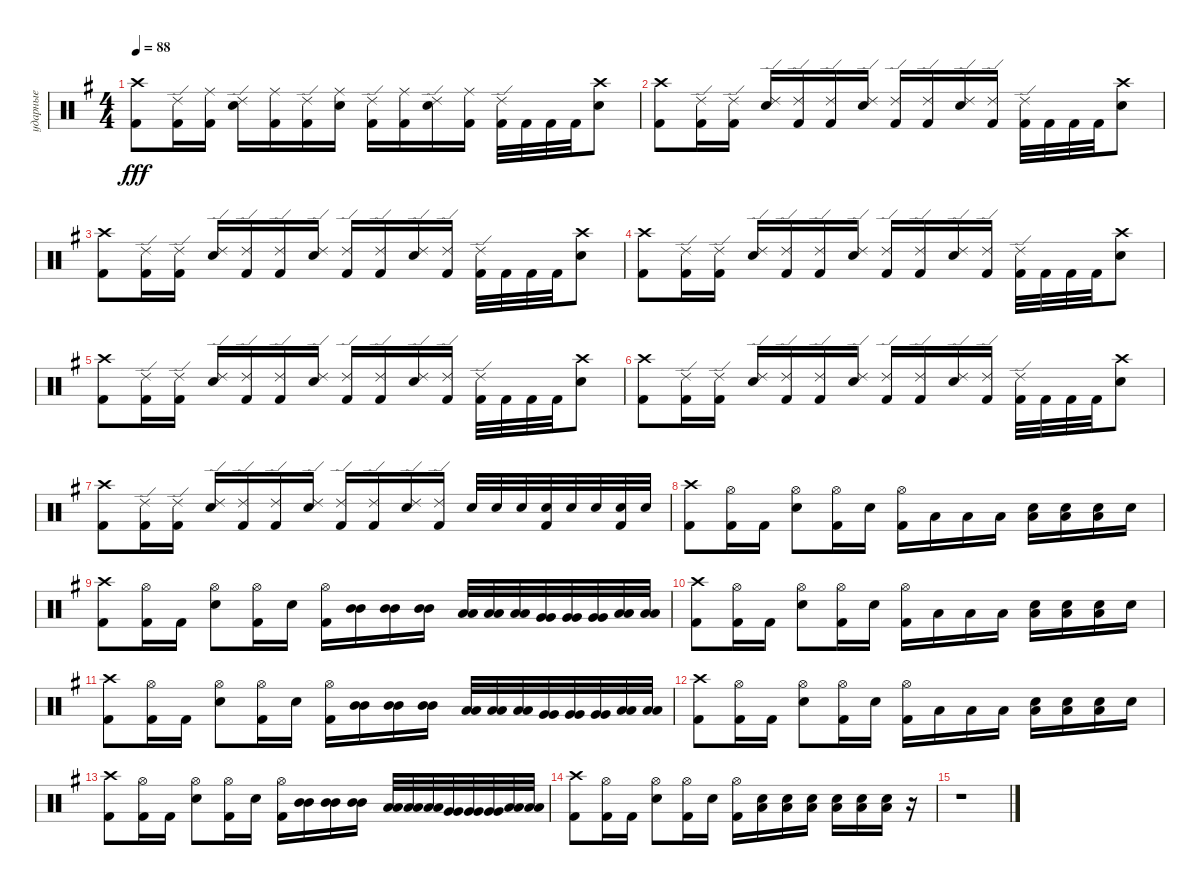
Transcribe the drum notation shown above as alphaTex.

\track ("ударные" "ударные") {instrument percussion}
\staff {score}
\articulation defaults
\ts (4 4)
\tempo 88
\clef neutral
\ks eminor
("Crash high (hit)" "Kick (hit) 2").8{dy fff} ("Ride (edge) 2" "Kick (hit) 2").16 ("Ride (middle)" "Kick (hit) 2").16 ("Ride (edge) 2" "Snare (hit) 2").16 ("Ride (middle)" "Kick (hit) 2").16 ("Ride (edge) 2" "Kick (hit) 2").16 ("Ride (middle)" "Snare (hit) 2").16 ("Ride (edge) 2" "Kick (hit) 2").16 ("Ride (middle)" "Kick (hit) 2").16 ("Ride (edge) 2" "Snare (hit) 2").16 ("Ride (middle)" "Kick (hit) 2").16 ("Ride (edge) 2" "Kick (hit) 2").32 "Kick (hit) 2".32 "Kick (hit) 2".32 "Kick (hit) 2".32 ("Crash high (hit)" "Snare (hit) 2").8 |
("Crash high (hit)" "Kick (hit) 2").8 ("Ride (edge) 2" "Kick (hit) 2").16 ("Ride (edge) 2" "Kick (hit) 2").16 ("Ride (edge) 2" "Snare (hit) 2").16 ("Ride (edge) 2" "Kick (hit) 2").16 ("Ride (edge) 2" "Kick (hit) 2").16 ("Ride (edge) 2" "Snare (hit) 2").16 ("Ride (edge) 2" "Kick (hit) 2").16 ("Ride (edge) 2" "Kick (hit) 2").16 ("Ride (edge) 2" "Snare (hit) 2").16 ("Ride (edge) 2" "Kick (hit) 2").16 ("Ride (edge) 2" "Kick (hit) 2").32 "Kick (hit) 2".32 "Kick (hit) 2".32 "Kick (hit) 2".32 ("Crash high (hit)" "Snare (hit) 2").8 |
("Crash high (hit)" "Kick (hit) 2").8 ("Ride (edge) 2" "Kick (hit) 2").16 ("Ride (edge) 2" "Kick (hit) 2").16 ("Ride (edge) 2" "Snare (hit) 2").16 ("Ride (edge) 2" "Kick (hit) 2").16 ("Ride (edge) 2" "Kick (hit) 2").16 ("Ride (edge) 2" "Snare (hit) 2").16 ("Ride (edge) 2" "Kick (hit) 2").16 ("Ride (edge) 2" "Kick (hit) 2").16 ("Ride (edge) 2" "Snare (hit) 2").16 ("Ride (edge) 2" "Kick (hit) 2").16 ("Ride (edge) 2" "Kick (hit) 2").32 "Kick (hit) 2".32 "Kick (hit) 2".32 "Kick (hit) 2".32 ("Crash high (hit)" "Snare (hit) 2").8 |
("Crash high (hit)" "Kick (hit) 2").8 ("Ride (edge) 2" "Kick (hit) 2").16 ("Ride (edge) 2" "Kick (hit) 2").16 ("Ride (edge) 2" "Snare (hit) 2").16 ("Ride (edge) 2" "Kick (hit) 2").16 ("Ride (edge) 2" "Kick (hit) 2").16 ("Ride (edge) 2" "Snare (hit) 2").16 ("Ride (edge) 2" "Kick (hit) 2").16 ("Ride (edge) 2" "Kick (hit) 2").16 ("Ride (edge) 2" "Snare (hit) 2").16 ("Ride (edge) 2" "Kick (hit) 2").16 ("Ride (edge) 2" "Kick (hit) 2").32 "Kick (hit) 2".32 "Kick (hit) 2".32 "Kick (hit) 2".32 ("Crash high (hit)" "Snare (hit) 2").8 |
("Crash high (hit)" "Kick (hit) 2").8 ("Ride (edge) 2" "Kick (hit) 2").16 ("Ride (edge) 2" "Kick (hit) 2").16 ("Ride (edge) 2" "Snare (hit) 2").16 ("Ride (edge) 2" "Kick (hit) 2").16 ("Ride (edge) 2" "Kick (hit) 2").16 ("Ride (edge) 2" "Snare (hit) 2").16 ("Ride (edge) 2" "Kick (hit) 2").16 ("Ride (edge) 2" "Kick (hit) 2").16 ("Ride (edge) 2" "Snare (hit) 2").16 ("Ride (edge) 2" "Kick (hit) 2").16 ("Ride (edge) 2" "Kick (hit) 2").32 "Kick (hit) 2".32 "Kick (hit) 2".32 "Kick (hit) 2".32 ("Crash high (hit)" "Snare (hit) 2").8 |
("Crash high (hit)" "Kick (hit) 2").8 ("Ride (edge) 2" "Kick (hit) 2").16 ("Ride (edge) 2" "Kick (hit) 2").16 ("Ride (edge) 2" "Snare (hit) 2").16 ("Ride (edge) 2" "Kick (hit) 2").16 ("Ride (edge) 2" "Kick (hit) 2").16 ("Ride (edge) 2" "Snare (hit) 2").16 ("Ride (edge) 2" "Kick (hit) 2").16 ("Ride (edge) 2" "Kick (hit) 2").16 ("Ride (edge) 2" "Snare (hit) 2").16 ("Ride (edge) 2" "Kick (hit) 2").16 ("Ride (edge) 2" "Kick (hit) 2").32 "Kick (hit) 2".32 "Kick (hit) 2".32 "Kick (hit) 2".32 ("Crash high (hit)" "Snare (hit) 2").8 |
("Crash high (hit)" "Kick (hit) 2").8 ("Ride (edge) 2" "Kick (hit) 2").16 ("Ride (edge) 2" "Kick (hit) 2").16 ("Ride (edge) 2" "Snare (hit) 2").16 ("Ride (edge) 2" "Kick (hit) 2").16 ("Ride (edge) 2" "Kick (hit) 2").16 ("Ride (edge) 2" "Snare (hit) 2").16 ("Ride (edge) 2" "Kick (hit) 2").16 ("Ride (edge) 2" "Kick (hit) 2").16 ("Ride (edge) 2" "Snare (hit) 2").16 ("Ride (edge) 2" "Kick (hit) 2").16 "Snare (hit) 2".32 "Snare (hit) 2".32 "Snare (hit) 2".32 ("Snare (hit) 2" "Kick (hit) 2").32 "Snare (hit) 2".32 "Snare (hit) 2".32 ("Snare (hit) 2" "Kick (hit) 2").32 "Snare (hit) 2".32 |
("Crash high (hit)" "Kick (hit) 2").8 ("Hi-Hat (open)" "Kick (hit) 2").16 "Kick (hit) 2".16 ("Hi-Hat (open)" "Snare (hit) 2").8 ("Hi-Hat (open)" "Kick (hit) 2").16 "Snare (hit) 2".16 ("Hi-Hat (open)" "Kick (hit) 2").16 "Low Tom (hit)".16 "Low Tom (hit)".16 "Low Tom (hit)".16 ("Snare (hit) 2" "Low Tom (hit)").16 ("Snare (hit) 2" "Low Tom (hit)").16 ("Snare (hit) 2" "Low Tom (hit)").16 "Snare (hit) 2".16 |
("Crash high (hit)" "Kick (hit) 2").8 ("Hi-Hat (open)" "Kick (hit) 2").16 "Kick (hit) 2".16 ("Hi-Hat (open)" "Snare (hit) 2").8 ("Hi-Hat (open)" "Kick (hit) 2").16 "Snare (hit) 2".16 ("Hi-Hat (open)" "Kick (hit) 2").16 ("Mid Tom (hit)" "Mid Tom (hit)").16 ("Mid Tom (hit)" "Mid Tom (hit)").16 ("Mid Tom (hit)" "Mid Tom (hit)").16 ("Low Tom (hit)" "Low Tom (hit)").32 ("Low Tom (hit)" "Low Tom (hit)").32 ("Low Tom (hit)" "Low Tom (hit)").32 ("Very Low Tom (hit)" "Very Low Tom (hit)").32 ("Very Low Tom (hit)" "Very Low Tom (hit)").32 ("Very Low Tom (hit)" "Very Low Tom (hit)").32 ("Low Floor Tom (hit)" "Low Floor Tom (hit)").32 ("Low Floor Tom (hit)" "Low Floor Tom (hit)").32 |
("Crash high (hit)" "Kick (hit) 2").8 ("Hi-Hat (open)" "Kick (hit) 2").16 "Kick (hit) 2".16 ("Hi-Hat (open)" "Snare (hit) 2").8 ("Hi-Hat (open)" "Kick (hit) 2").16 "Snare (hit) 2".16 ("Hi-Hat (open)" "Kick (hit) 2").16 "Low Tom (hit)".16 "Low Tom (hit)".16 "Low Tom (hit)".16 ("Snare (hit) 2" "Low Tom (hit)").16 ("Snare (hit) 2" "Low Tom (hit)").16 ("Snare (hit) 2" "Low Tom (hit)").16 "Snare (hit) 2".16 |
("Crash high (hit)" "Kick (hit) 2").8 ("Hi-Hat (open)" "Kick (hit) 2").16 "Kick (hit) 2".16 ("Hi-Hat (open)" "Snare (hit) 2").8 ("Hi-Hat (open)" "Kick (hit) 2").16 "Snare (hit) 2".16 ("Hi-Hat (open)" "Kick (hit) 2").16 ("Mid Tom (hit)" "Mid Tom (hit)").16 ("Mid Tom (hit)" "Mid Tom (hit)").16 ("Mid Tom (hit)" "Mid Tom (hit)").16 ("Low Tom (hit)" "Low Tom (hit)").32 ("Low Tom (hit)" "Low Tom (hit)").32 ("Low Tom (hit)" "Low Tom (hit)").32 ("Very Low Tom (hit)" "Very Low Tom (hit)").32 ("Very Low Tom (hit)" "Very Low Tom (hit)").32 ("Very Low Tom (hit)" "Very Low Tom (hit)").32 ("Low Floor Tom (hit)" "Low Floor Tom (hit)").32 ("Low Floor Tom (hit)" "Low Floor Tom (hit)").32 |
("Crash high (hit)" "Kick (hit) 2").8 ("Hi-Hat (open)" "Kick (hit) 2").16 "Kick (hit) 2".16 ("Hi-Hat (open)" "Snare (hit) 2").8 ("Hi-Hat (open)" "Kick (hit) 2").16 "Snare (hit) 2".16 ("Hi-Hat (open)" "Kick (hit) 2").16 "Low Tom (hit)".16 "Low Tom (hit)".16 "Low Tom (hit)".16 ("Snare (hit) 2" "Low Tom (hit)").16 ("Snare (hit) 2" "Low Tom (hit)").16 ("Snare (hit) 2" "Low Tom (hit)").16 "Snare (hit) 2".16 |
("Crash high (hit)" "Kick (hit) 2").8 ("Hi-Hat (open)" "Kick (hit) 2").16 "Kick (hit) 2".16 ("Hi-Hat (open)" "Snare (hit) 2").8 ("Hi-Hat (open)" "Kick (hit) 2").16 "Snare (hit) 2".16 ("Hi-Hat (open)" "Kick (hit) 2").16 ("Mid Tom (hit)" "Mid Tom (hit)").16 ("Mid Tom (hit)" "Mid Tom (hit)").16 ("Mid Tom (hit)" "Mid Tom (hit)").16 ("Low Tom (hit)" "Low Tom (hit)").32 ("Low Tom (hit)" "Low Tom (hit)").32 ("Low Tom (hit)" "Low Tom (hit)").32 ("Very Low Tom (hit)" "Very Low Tom (hit)").32 ("Very Low Tom (hit)" "Very Low Tom (hit)").32 ("Very Low Tom (hit)" "Very Low Tom (hit)").32 ("Low Floor Tom (hit)" "Low Floor Tom (hit)").32 ("Low Floor Tom (hit)" "Low Floor Tom (hit)").32 |
("Crash high (hit)" "Kick (hit) 2").8 ("Hi-Hat (open)" "Kick (hit) 2").16 "Kick (hit) 2".16 ("Hi-Hat (open)" "Snare (hit) 2").8 ("Hi-Hat (open)" "Kick (hit) 2").16 "Snare (hit) 2".16 ("Hi-Hat (open)" "Kick (hit) 2").16 ("Snare (hit) 2" "Low Tom (hit)").16 ("Snare (hit) 2" "Low Tom (hit)").16 ("Snare (hit) 2" "Low Tom (hit)").16 ("Snare (hit) 2" "Low Tom (hit)").16 ("Snare (hit) 2" "Low Tom (hit)").16 ("Snare (hit) 2" "Low Tom (hit)").16 r.16 |
r.1
